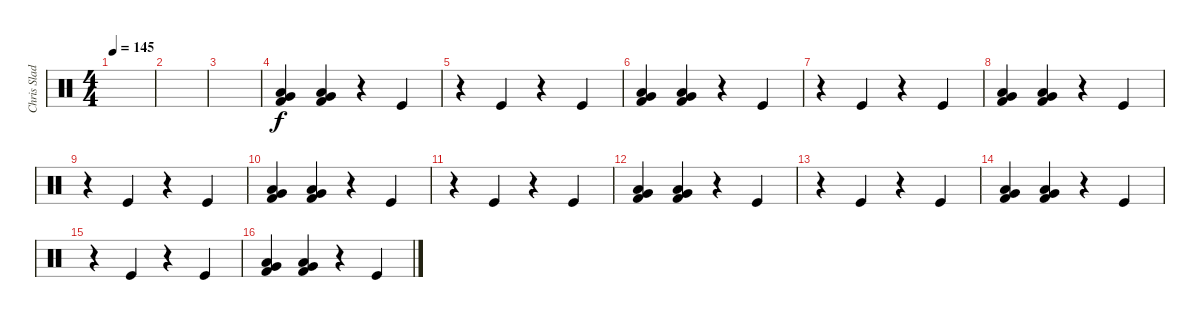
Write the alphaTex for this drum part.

\track ("Chris Slade" "Chris Slad") {instrument percussion}
\staff {score}
\articulation defaults
\ts (4 4)
\tempo 145
\clef neutral
\ks c
|
|
|
("Low Tom (hit)" "Very Low Tom (hit)" "Kick (hit) 2").4 ("Low Tom (hit)" "Very Low Tom (hit)" "Kick (hit) 2").4 r.4 "Kick (hit)".4 |
r.4 "Kick (hit)".4 r.4 "Kick (hit)".4 |
("Low Tom (hit)" "Very Low Tom (hit)" "Kick (hit) 2").4 ("Low Tom (hit)" "Very Low Tom (hit)" "Kick (hit) 2").4 r.4 "Kick (hit)".4 |
r.4 "Kick (hit)".4 r.4 "Kick (hit)".4 |
("Low Tom (hit)" "Very Low Tom (hit)" "Kick (hit) 2").4 ("Low Tom (hit)" "Very Low Tom (hit)" "Kick (hit) 2").4 r.4 "Kick (hit)".4 |
r.4 "Kick (hit)".4 r.4 "Kick (hit)".4 |
("Low Tom (hit)" "Very Low Tom (hit)" "Kick (hit) 2").4 ("Low Tom (hit)" "Very Low Tom (hit)" "Kick (hit) 2").4 r.4 "Kick (hit)".4 |
r.4 "Kick (hit)".4 r.4 "Kick (hit)".4 |
("Low Tom (hit)" "Very Low Tom (hit)" "Kick (hit) 2").4 ("Low Tom (hit)" "Very Low Tom (hit)" "Kick (hit) 2").4 r.4 "Kick (hit)".4 |
r.4 "Kick (hit)".4 r.4 "Kick (hit)".4 |
("Low Tom (hit)" "Very Low Tom (hit)" "Kick (hit) 2").4 ("Low Tom (hit)" "Very Low Tom (hit)" "Kick (hit) 2").4 r.4 "Kick (hit)".4 |
r.4 "Kick (hit)".4 r.4 "Kick (hit)".4 |
("Low Tom (hit)" "Very Low Tom (hit)" "Kick (hit) 2").4 ("Low Tom (hit)" "Very Low Tom (hit)" "Kick (hit) 2").4 r.4 "Kick (hit)".4
